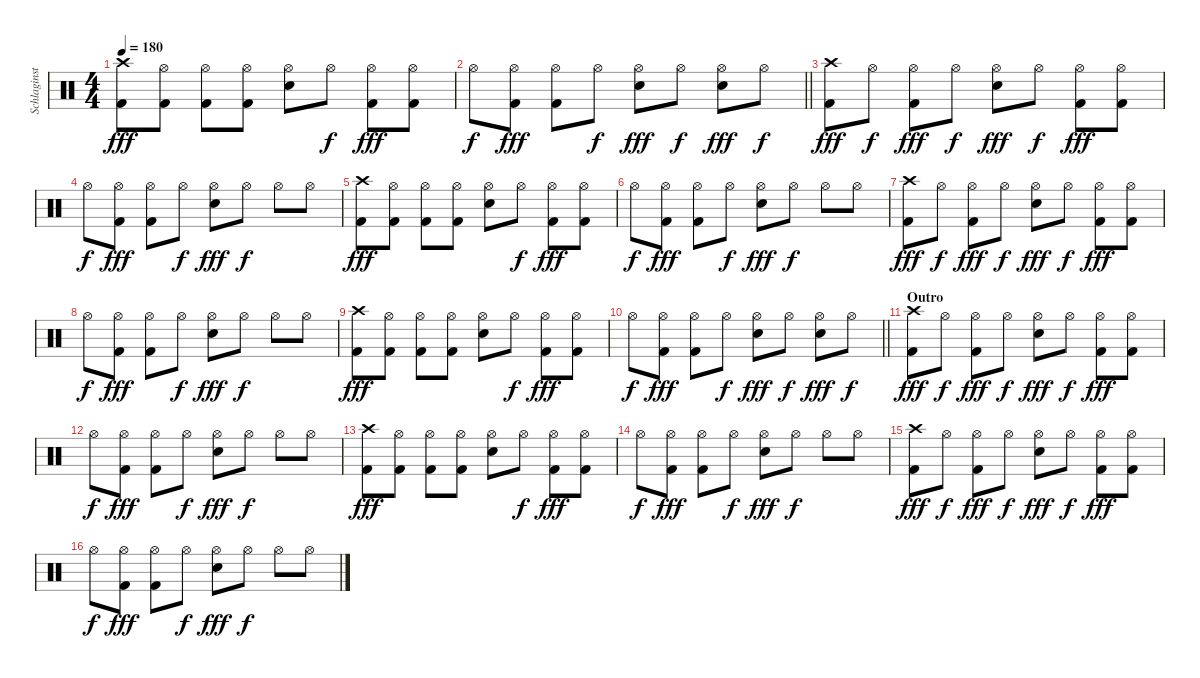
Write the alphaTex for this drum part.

\track ("Schlaginstrumente - Auswahl" "Schlaginst") {instrument percussion}
\staff {score}
\articulation defaults
\ts (4 4)
\tempo 180
\clef neutral
\ks c
("Crash high (hit)" "Kick (hit) 2").8{dy fff} ("Hi-Hat (open)" "Kick (hit) 2").8 ("Hi-Hat (open)" "Kick (hit) 2").8 ("Hi-Hat (open)" "Kick (hit) 2").8 ("Hi-Hat (open)" "Snare (hit) 2").8 "Hi-Hat (open)".8{dy f} ("Hi-Hat (open)" "Kick (hit) 2").8{dy fff} ("Hi-Hat (open)" "Kick (hit) 2").8 |
\barLineRight lightlight "Hi-Hat (open)".8{dy f}
("Hi-Hat (open)" "Kick (hit) 2").8{dy fff} ("Hi-Hat (open)" "Kick (hit) 2").8 "Hi-Hat (open)".8{dy f} ("Hi-Hat (open)" "Snare (hit) 2").8{dy fff} "Hi-Hat (open)".8{dy f} ("Hi-Hat (open)" "Snare (hit) 2").8{dy fff} "Hi-Hat (open)".8{dy f} |
("Crash high (hit)" "Kick (hit) 2").8{dy fff} "Hi-Hat (open)".8{dy f} ("Hi-Hat (open)" "Kick (hit) 2").8{dy fff} "Hi-Hat (open)".8{dy f} ("Hi-Hat (open)" "Snare (hit) 2").8{dy fff} "Hi-Hat (open)".8{dy f} ("Hi-Hat (open)" "Kick (hit) 2").8{dy fff} ("Hi-Hat (open)" "Kick (hit) 2").8 |
"Hi-Hat (open)".8{dy f} ("Hi-Hat (open)" "Kick (hit) 2").8{dy fff} ("Hi-Hat (open)" "Kick (hit) 2").8 "Hi-Hat (open)".8{dy f} ("Hi-Hat (open)" "Snare (hit) 2").8{dy fff} "Hi-Hat (open)".8{dy f} "Hi-Hat (open)".8 "Hi-Hat (open)".8 |
("Crash high (hit)" "Kick (hit) 2").8{dy fff} ("Hi-Hat (open)" "Kick (hit) 2").8 ("Hi-Hat (open)" "Kick (hit) 2").8 ("Hi-Hat (open)" "Kick (hit) 2").8 ("Hi-Hat (open)" "Snare (hit) 2").8 "Hi-Hat (open)".8{dy f} ("Hi-Hat (open)" "Kick (hit) 2").8{dy fff} ("Hi-Hat (open)" "Kick (hit) 2").8 |
"Hi-Hat (open)".8{dy f} ("Hi-Hat (open)" "Kick (hit) 2").8{dy fff} ("Hi-Hat (open)" "Kick (hit) 2").8 "Hi-Hat (open)".8{dy f} ("Hi-Hat (open)" "Snare (hit) 2").8{dy fff} "Hi-Hat (open)".8{dy f} "Hi-Hat (open)".8 "Hi-Hat (open)".8 |
("Crash high (hit)" "Kick (hit) 2").8{dy fff} "Hi-Hat (open)".8{dy f} ("Hi-Hat (open)" "Kick (hit) 2").8{dy fff} "Hi-Hat (open)".8{dy f} ("Hi-Hat (open)" "Snare (hit) 2").8{dy fff} "Hi-Hat (open)".8{dy f} ("Hi-Hat (open)" "Kick (hit) 2").8{dy fff} ("Hi-Hat (open)" "Kick (hit) 2").8 |
"Hi-Hat (open)".8{dy f} ("Hi-Hat (open)" "Kick (hit) 2").8{dy fff} ("Hi-Hat (open)" "Kick (hit) 2").8 "Hi-Hat (open)".8{dy f} ("Hi-Hat (open)" "Snare (hit) 2").8{dy fff} "Hi-Hat (open)".8{dy f} "Hi-Hat (open)".8 "Hi-Hat (open)".8 |
("Crash high (hit)" "Kick (hit) 2").8{dy fff} ("Hi-Hat (open)" "Kick (hit) 2").8 ("Hi-Hat (open)" "Kick (hit) 2").8 ("Hi-Hat (open)" "Kick (hit) 2").8 ("Hi-Hat (open)" "Snare (hit) 2").8 "Hi-Hat (open)".8{dy f} ("Hi-Hat (open)" "Kick (hit) 2").8{dy fff} ("Hi-Hat (open)" "Kick (hit) 2").8 |
\barLineRight lightlight "Hi-Hat (open)".8{dy f}
("Hi-Hat (open)" "Kick (hit) 2").8{dy fff} ("Hi-Hat (open)" "Kick (hit) 2").8 "Hi-Hat (open)".8{dy f} ("Hi-Hat (open)" "Snare (hit) 2").8{dy fff} "Hi-Hat (open)".8{dy f} ("Hi-Hat (open)" "Snare (hit) 2").8{dy fff} "Hi-Hat (open)".8{dy f} |
\section ("" "Outro")
("Crash high (hit)" "Kick (hit) 2").8{dy fff} "Hi-Hat (open)".8{dy f} ("Hi-Hat (open)" "Kick (hit) 2").8{dy fff} "Hi-Hat (open)".8{dy f} ("Hi-Hat (open)" "Snare (hit) 2").8{dy fff} "Hi-Hat (open)".8{dy f} ("Hi-Hat (open)" "Kick (hit) 2").8{dy fff} ("Hi-Hat (open)" "Kick (hit) 2").8 |
"Hi-Hat (open)".8{dy f} ("Hi-Hat (open)" "Kick (hit) 2").8{dy fff} ("Hi-Hat (open)" "Kick (hit) 2").8 "Hi-Hat (open)".8{dy f} ("Hi-Hat (open)" "Snare (hit) 2").8{dy fff} "Hi-Hat (open)".8{dy f} "Hi-Hat (open)".8 "Hi-Hat (open)".8 |
("Crash high (hit)" "Kick (hit) 2").8{dy fff} ("Hi-Hat (open)" "Kick (hit) 2").8 ("Hi-Hat (open)" "Kick (hit) 2").8 ("Hi-Hat (open)" "Kick (hit) 2").8 ("Hi-Hat (open)" "Snare (hit) 2").8 "Hi-Hat (open)".8{dy f} ("Hi-Hat (open)" "Kick (hit) 2").8{dy fff} ("Hi-Hat (open)" "Kick (hit) 2").8 |
"Hi-Hat (open)".8{dy f} ("Hi-Hat (open)" "Kick (hit) 2").8{dy fff} ("Hi-Hat (open)" "Kick (hit) 2").8 "Hi-Hat (open)".8{dy f} ("Hi-Hat (open)" "Snare (hit) 2").8{dy fff} "Hi-Hat (open)".8{dy f} "Hi-Hat (open)".8 "Hi-Hat (open)".8 |
("Crash high (hit)" "Kick (hit) 2").8{dy fff} "Hi-Hat (open)".8{dy f} ("Hi-Hat (open)" "Kick (hit) 2").8{dy fff} "Hi-Hat (open)".8{dy f} ("Hi-Hat (open)" "Snare (hit) 2").8{dy fff} "Hi-Hat (open)".8{dy f} ("Hi-Hat (open)" "Kick (hit) 2").8{dy fff} ("Hi-Hat (open)" "Kick (hit) 2").8 |
"Hi-Hat (open)".8{dy f} ("Hi-Hat (open)" "Kick (hit) 2").8{dy fff} ("Hi-Hat (open)" "Kick (hit) 2").8 "Hi-Hat (open)".8{dy f} ("Hi-Hat (open)" "Snare (hit) 2").8{dy fff} "Hi-Hat (open)".8{dy f} "Hi-Hat (open)".8 "Hi-Hat (open)".8
